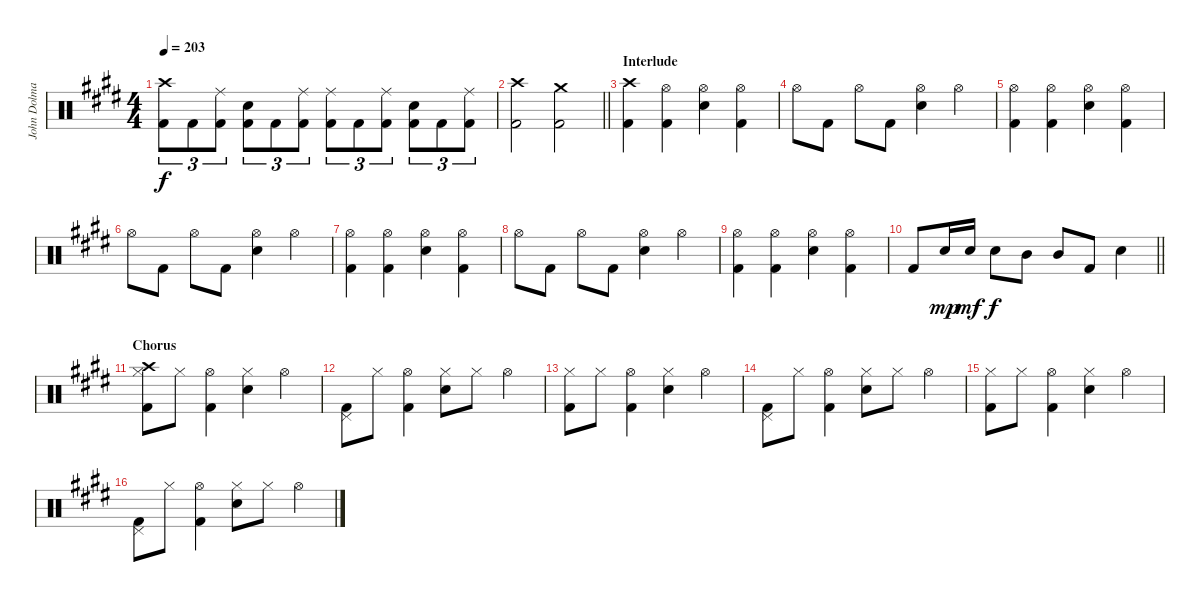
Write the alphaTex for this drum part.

\track ("John Dolmayan [Drums]" "John Dolma") {instrument percussion}
\staff {score}
\articulation defaults
\ts (4 4)
\tempo 203
\clef neutral
\ks c#minor
("Crash high (hit)" "Kick (hit) 2").8{tu (3 2) dy f} "Kick (hit) 2".8{tu (3 2)} ("Ride (middle)" "Kick (hit) 2").8{tu (3 2)} ("Electric Snare (hit)" "Kick (hit) 2").8{tu (3 2)} "Kick (hit) 2".8{tu (3 2)} ("Ride (middle)" "Kick (hit) 2").8{tu (3 2)} ("Ride (middle)" "Kick (hit) 2").8{tu (3 2)} "Kick (hit) 2".8{tu (3 2)} ("Ride (middle)" "Kick (hit) 2").8{tu (3 2)} ("Electric Snare (hit)" "Kick (hit) 2").8{tu (3 2)} "Kick (hit) 2".8{tu (3 2)} ("Ride (middle)" "Kick (hit) 2").8{tu (3 2)} |
\barLineRight lightlight
("Crash high (hit)" "Kick (hit) 2").2 ("Crash medium (hit)" "Kick (hit) 2").2 |
\section ("" "Interlude")
("Crash high (hit)" "Kick (hit) 2").4 ("Hi-Hat (open)" "Kick (hit) 2").4 ("Hi-Hat (open)" "Electric Snare (hit)").4 ("Hi-Hat (open)" "Kick (hit) 2").4 |
"Hi-Hat (open)".8 "Kick (hit) 2".8 "Hi-Hat (open)".8 "Kick (hit) 2".8 ("Hi-Hat (open)" "Electric Snare (hit)").4 "Hi-Hat (open)".4 |
("Hi-Hat (open)" "Kick (hit) 2").4 ("Hi-Hat (open)" "Kick (hit) 2").4 ("Hi-Hat (open)" "Electric Snare (hit)").4 ("Hi-Hat (open)" "Kick (hit) 2").4 |
"Hi-Hat (open)".8 "Kick (hit) 2".8 "Hi-Hat (open)".8 "Kick (hit) 2".8 ("Hi-Hat (open)" "Electric Snare (hit)").4 "Hi-Hat (open)".4 |
("Hi-Hat (open)" "Kick (hit) 2").4 ("Hi-Hat (open)" "Kick (hit) 2").4 ("Hi-Hat (open)" "Electric Snare (hit)").4 ("Hi-Hat (open)" "Kick (hit) 2").4 |
"Hi-Hat (open)".8 "Kick (hit) 2".8 "Hi-Hat (open)".8 "Kick (hit) 2".8 ("Hi-Hat (open)" "Electric Snare (hit)").4 "Hi-Hat (open)".4 |
("Hi-Hat (open)" "Kick (hit) 2").4 ("Hi-Hat (open)" "Kick (hit) 2").4 ("Hi-Hat (open)" "Electric Snare (hit)").4 ("Hi-Hat (open)" "Kick (hit) 2").4 |
\barLineRight lightlight "Kick (hit) 2".8 "Electric Snare (hit)".16{dy mp} "Electric Snare (hit)".16{dy mf} "Electric Snare (hit)".8{dy f} "Mid Tom (hit)".8 "Mid Tom (hit)".8 "Kick (hit) 2".8 "Electric Snare (hit)".4
|
\section ("" "Chorus")
("Crash high (hit)" "Hi-Hat (closed)" "Kick (hit) 2").8 "Hi-Hat (closed)".8 ("Hi-Hat (open)" "Kick (hit) 2").4 ("Hi-Hat (closed)" "Electric Snare (hit)").4 "Hi-Hat (open)".4 |
("Pedal Hi-Hat (hit)" "Kick (hit) 2").8 "Hi-Hat (closed)".8 ("Hi-Hat (open)" "Kick (hit) 2").4 ("Hi-Hat (closed)" "Electric Snare (hit)").8 "Hi-Hat (closed)".8 "Hi-Hat (open)".4 |
("Hi-Hat (closed)" "Kick (hit) 2").8 "Hi-Hat (closed)".8 ("Hi-Hat (open)" "Kick (hit) 2").4 ("Hi-Hat (closed)" "Electric Snare (hit)").4 "Hi-Hat (open)".4 |
("Pedal Hi-Hat (hit)" "Kick (hit) 2").8 "Hi-Hat (closed)".8 ("Hi-Hat (open)" "Kick (hit) 2").4 ("Hi-Hat (closed)" "Electric Snare (hit)").8 "Hi-Hat (closed)".8 "Hi-Hat (open)".4 |
("Hi-Hat (closed)" "Kick (hit) 2").8 "Hi-Hat (closed)".8 ("Hi-Hat (open)" "Kick (hit) 2").4 ("Hi-Hat (closed)" "Electric Snare (hit)").4 "Hi-Hat (open)".4 |
("Pedal Hi-Hat (hit)" "Kick (hit) 2").8 "Hi-Hat (closed)".8 ("Hi-Hat (open)" "Kick (hit) 2").4 ("Hi-Hat (closed)" "Electric Snare (hit)").8 "Hi-Hat (closed)".8 "Hi-Hat (open)".4
